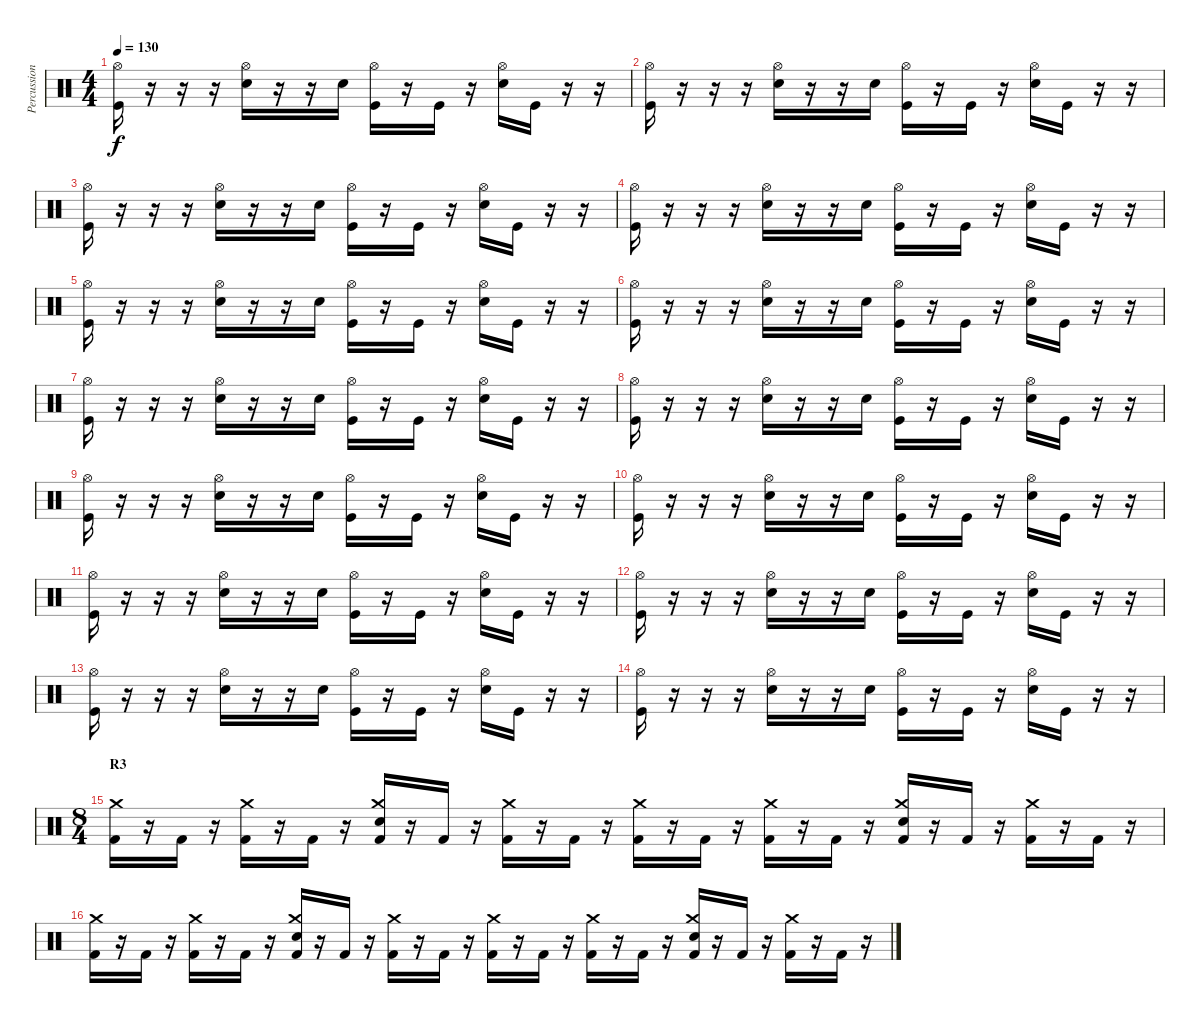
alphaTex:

\track ("Percussions" "Percussion") {instrument percussion}
\staff {score}
\articulation defaults
\ts (4 4)
\tempo 130
\clef neutral
\ks c
("Hi-Hat (open)" "Kick (hit)").16{dy f} r.16 r.16 r.16 ("Hi-Hat (open)" "Snare (hit) 2").16 r.16 r.16 "Snare (hit) 2".16 ("Hi-Hat (open)" "Kick (hit)").16 r.16 "Kick (hit)".16 r.16 ("Hi-Hat (open)" "Snare (hit) 2").16 "Kick (hit)".16 r.16 r.16 |
("Hi-Hat (open)" "Kick (hit)").16 r.16 r.16 r.16 ("Hi-Hat (open)" "Snare (hit) 2").16 r.16 r.16 "Snare (hit) 2".16 ("Hi-Hat (open)" "Kick (hit)").16 r.16 "Kick (hit)".16 r.16 ("Hi-Hat (open)" "Snare (hit) 2").16 "Kick (hit)".16 r.16 r.16 |
("Hi-Hat (open)" "Kick (hit)").16 r.16 r.16 r.16 ("Hi-Hat (open)" "Snare (hit) 2").16 r.16 r.16 "Snare (hit) 2".16 ("Hi-Hat (open)" "Kick (hit)").16 r.16 "Kick (hit)".16 r.16 ("Hi-Hat (open)" "Snare (hit) 2").16 "Kick (hit)".16 r.16 r.16 |
("Hi-Hat (open)" "Kick (hit)").16 r.16 r.16 r.16 ("Hi-Hat (open)" "Snare (hit) 2").16 r.16 r.16 "Snare (hit) 2".16 ("Hi-Hat (open)" "Kick (hit)").16 r.16 "Kick (hit)".16 r.16 ("Hi-Hat (open)" "Snare (hit) 2").16 "Kick (hit)".16 r.16 r.16 |
("Hi-Hat (open)" "Kick (hit)").16 r.16 r.16 r.16 ("Hi-Hat (open)" "Snare (hit) 2").16 r.16 r.16 "Snare (hit) 2".16 ("Hi-Hat (open)" "Kick (hit)").16 r.16 "Kick (hit)".16 r.16 ("Hi-Hat (open)" "Snare (hit) 2").16 "Kick (hit)".16 r.16 r.16 |
("Hi-Hat (open)" "Kick (hit)").16 r.16 r.16 r.16 ("Hi-Hat (open)" "Snare (hit) 2").16 r.16 r.16 "Snare (hit) 2".16 ("Hi-Hat (open)" "Kick (hit)").16 r.16 "Kick (hit)".16 r.16 ("Hi-Hat (open)" "Snare (hit) 2").16 "Kick (hit)".16 r.16 r.16 |
("Hi-Hat (open)" "Kick (hit)").16 r.16 r.16 r.16 ("Hi-Hat (open)" "Snare (hit) 2").16 r.16 r.16 "Snare (hit) 2".16 ("Hi-Hat (open)" "Kick (hit)").16 r.16 "Kick (hit)".16 r.16 ("Hi-Hat (open)" "Snare (hit) 2").16 "Kick (hit)".16 r.16 r.16 |
("Hi-Hat (open)" "Kick (hit)").16 r.16 r.16 r.16 ("Hi-Hat (open)" "Snare (hit) 2").16 r.16 r.16 "Snare (hit) 2".16 ("Hi-Hat (open)" "Kick (hit)").16 r.16 "Kick (hit)".16 r.16 ("Hi-Hat (open)" "Snare (hit) 2").16 "Kick (hit)".16 r.16 r.16 |
("Hi-Hat (open)" "Kick (hit)").16 r.16 r.16 r.16 ("Hi-Hat (open)" "Snare (hit) 2").16 r.16 r.16 "Snare (hit) 2".16 ("Hi-Hat (open)" "Kick (hit)").16 r.16 "Kick (hit)".16 r.16 ("Hi-Hat (open)" "Snare (hit) 2").16 "Kick (hit)".16 r.16 r.16 |
("Hi-Hat (open)" "Kick (hit)").16 r.16 r.16 r.16 ("Hi-Hat (open)" "Snare (hit) 2").16 r.16 r.16 "Snare (hit) 2".16 ("Hi-Hat (open)" "Kick (hit)").16 r.16 "Kick (hit)".16 r.16 ("Hi-Hat (open)" "Snare (hit) 2").16 "Kick (hit)".16 r.16 r.16 |
("Hi-Hat (open)" "Kick (hit)").16 r.16 r.16 r.16 ("Hi-Hat (open)" "Snare (hit) 2").16 r.16 r.16 "Snare (hit) 2".16 ("Hi-Hat (open)" "Kick (hit)").16 r.16 "Kick (hit)".16 r.16 ("Hi-Hat (open)" "Snare (hit) 2").16 "Kick (hit)".16 r.16 r.16 |
("Hi-Hat (open)" "Kick (hit)").16 r.16 r.16 r.16 ("Hi-Hat (open)" "Snare (hit) 2").16 r.16 r.16 "Snare (hit) 2".16 ("Hi-Hat (open)" "Kick (hit)").16 r.16 "Kick (hit)".16 r.16 ("Hi-Hat (open)" "Snare (hit) 2").16 "Kick (hit)".16 r.16 r.16 |
("Hi-Hat (open)" "Kick (hit)").16 r.16 r.16 r.16 ("Hi-Hat (open)" "Snare (hit) 2").16 r.16 r.16 "Snare (hit) 2".16 ("Hi-Hat (open)" "Kick (hit)").16 r.16 "Kick (hit)".16 r.16 ("Hi-Hat (open)" "Snare (hit) 2").16 "Kick (hit)".16 r.16 r.16 |
("Hi-Hat (open)" "Kick (hit)").16 r.16 r.16 r.16 ("Hi-Hat (open)" "Snare (hit) 2").16 r.16 r.16 "Snare (hit) 2".16 ("Hi-Hat (open)" "Kick (hit)").16 r.16 "Kick (hit)".16 r.16 ("Hi-Hat (open)" "Snare (hit) 2").16 "Kick (hit)".16 r.16 r.16 |
\ts (8 4)
\section ("" "R3")
("Crash medium (hit)" "Kick (hit) 2").16 r.16 "Kick (hit) 2".16 r.16 ("Crash medium (hit)" "Kick (hit) 2").16 r.16 "Kick (hit) 2".16 r.16 ("Crash medium (hit)" "Snare (hit) 2" "Kick (hit) 2").16 r.16 "Kick (hit) 2".16 r.16 ("Crash medium (hit)" "Kick (hit) 2").16 r.16 "Kick (hit) 2".16 r.16 ("Crash medium (hit)" "Kick (hit) 2").16 r.16 "Kick (hit) 2".16 r.16 ("Crash medium (hit)" "Kick (hit) 2").16 r.16 "Kick (hit) 2".16 r.16 ("Crash medium (hit)" "Snare (hit) 2" "Kick (hit) 2").16 r.16 "Kick (hit) 2".16 r.16 ("Crash medium (hit)" "Kick (hit) 2").16 r.16 "Kick (hit) 2".16 r.16 |
("Crash medium (hit)" "Kick (hit) 2").16 r.16 "Kick (hit) 2".16 r.16 ("Crash medium (hit)" "Kick (hit) 2").16 r.16 "Kick (hit) 2".16 r.16 ("Crash medium (hit)" "Snare (hit) 2" "Kick (hit) 2").16 r.16 "Kick (hit) 2".16 r.16 ("Crash medium (hit)" "Kick (hit) 2").16 r.16 "Kick (hit) 2".16 r.16 ("Crash medium (hit)" "Kick (hit) 2").16 r.16 "Kick (hit) 2".16 r.16 ("Crash medium (hit)" "Kick (hit) 2").16 r.16 "Kick (hit) 2".16 r.16 ("Crash medium (hit)" "Snare (hit) 2" "Kick (hit) 2").16 r.16 "Kick (hit) 2".16 r.16 ("Crash medium (hit)" "Kick (hit) 2").16 r.16 "Kick (hit) 2".16 r.16
